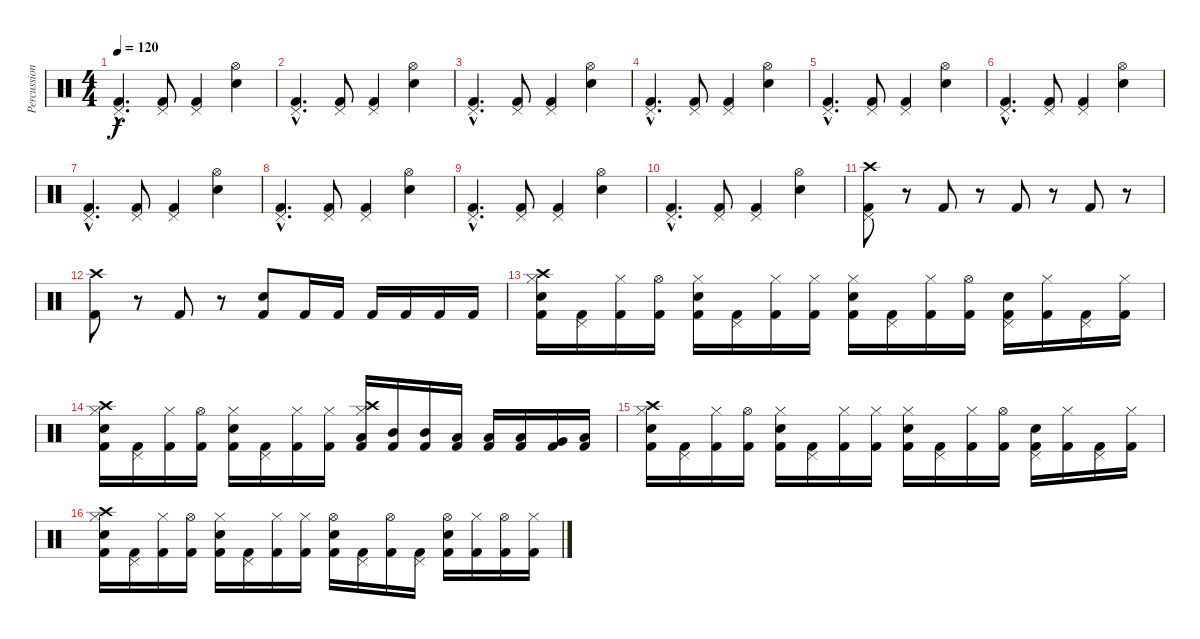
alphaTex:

\track ("Percussion" "Percussion") {instrument percussion}
\staff {score}
\articulation defaults
\ts (4 4)
\tempo 120
\clef neutral
\ks c
("Pedal Hi-Hat (hit)"{hac} "Kick (hit) 2"{hac}).4{d dy f} ("Pedal Hi-Hat (hit)" "Kick (hit) 2").8 ("Pedal Hi-Hat (hit)" "Kick (hit) 2").4 ("Hi-Hat (open)" "Snare (hit) 2").4 |
("Pedal Hi-Hat (hit)"{hac} "Kick (hit) 2"{hac}).4{d} ("Pedal Hi-Hat (hit)" "Kick (hit) 2").8 ("Pedal Hi-Hat (hit)" "Kick (hit) 2").4 ("Hi-Hat (open)" "Snare (hit) 2").4 |
("Pedal Hi-Hat (hit)"{hac} "Kick (hit) 2"{hac}).4{d} ("Pedal Hi-Hat (hit)" "Kick (hit) 2").8 ("Pedal Hi-Hat (hit)" "Kick (hit) 2").4 ("Hi-Hat (open)" "Snare (hit) 2").4 |
("Pedal Hi-Hat (hit)"{hac} "Kick (hit) 2"{hac}).4{d} ("Pedal Hi-Hat (hit)" "Kick (hit) 2").8 ("Pedal Hi-Hat (hit)" "Kick (hit) 2").4 ("Hi-Hat (open)" "Snare (hit) 2").4 |
("Pedal Hi-Hat (hit)"{hac} "Kick (hit) 2"{hac}).4{d} ("Pedal Hi-Hat (hit)" "Kick (hit) 2").8 ("Pedal Hi-Hat (hit)" "Kick (hit) 2").4 ("Hi-Hat (open)" "Snare (hit) 2").4 |
("Pedal Hi-Hat (hit)"{hac} "Kick (hit) 2"{hac}).4{d} ("Pedal Hi-Hat (hit)" "Kick (hit) 2").8 ("Pedal Hi-Hat (hit)" "Kick (hit) 2").4 ("Hi-Hat (open)" "Snare (hit) 2").4 |
("Pedal Hi-Hat (hit)"{hac} "Kick (hit) 2"{hac}).4{d} ("Pedal Hi-Hat (hit)" "Kick (hit) 2").8 ("Pedal Hi-Hat (hit)" "Kick (hit) 2").4 ("Hi-Hat (open)" "Snare (hit) 2").4 |
("Pedal Hi-Hat (hit)"{hac} "Kick (hit) 2"{hac}).4{d} ("Pedal Hi-Hat (hit)" "Kick (hit) 2").8 ("Pedal Hi-Hat (hit)" "Kick (hit) 2").4 ("Hi-Hat (open)" "Snare (hit) 2").4 |
("Pedal Hi-Hat (hit)"{hac} "Kick (hit) 2"{hac}).4{d} ("Pedal Hi-Hat (hit)" "Kick (hit) 2").8 ("Pedal Hi-Hat (hit)" "Kick (hit) 2").4 ("Hi-Hat (open)" "Snare (hit) 2").4 |
("Pedal Hi-Hat (hit)"{hac} "Kick (hit) 2"{hac}).4{d} ("Pedal Hi-Hat (hit)" "Kick (hit) 2").8 ("Pedal Hi-Hat (hit)" "Kick (hit) 2").4 ("Hi-Hat (open)" "Snare (hit) 2").4 |
("Crash high (hit)" "Pedal Hi-Hat (hit)" "Kick (hit) 2").8 r.8 "Kick (hit) 2".8 r.8 "Kick (hit) 2".8 r.8 "Kick (hit) 2".8 r.8 |
("Crash high (hit)" "Kick (hit) 2").8 r.8 "Kick (hit) 2".8 r.8 ("Snare (hit) 2" "Kick (hit) 2").8 "Kick (hit) 2".16 "Kick (hit) 2".16 "Kick (hit) 2".16 "Kick (hit) 2".16 "Kick (hit) 2".16 "Kick (hit) 2".16 |
("Crash high (hit)" "Hi-Hat (closed)" "Snare (hit) 2" "Kick (hit) 2").16 ("Pedal Hi-Hat (hit)" "Kick (hit) 2").16 ("Hi-Hat (closed)" "Kick (hit) 2").16 ("Hi-Hat (open)" "Kick (hit) 2").16 ("Hi-Hat (closed)" "Snare (hit) 2" "Kick (hit) 2").16 ("Pedal Hi-Hat (hit)" "Kick (hit) 2").16 ("Hi-Hat (closed)" "Kick (hit) 2").16 ("Hi-Hat (closed)" "Kick (hit) 2").16 ("Hi-Hat (closed)" "Snare (hit) 2" "Kick (hit) 2").16 ("Pedal Hi-Hat (hit)" "Kick (hit) 2").16 ("Hi-Hat (closed)" "Kick (hit) 2").16 ("Hi-Hat (open)" "Kick (hit) 2").16 ("Pedal Hi-Hat (hit)" "Snare (hit) 2" "Kick (hit) 2").16 ("Hi-Hat (closed)" "Kick (hit) 2").16 ("Pedal Hi-Hat (hit)" "Kick (hit) 2").16 ("Hi-Hat (closed)" "Kick (hit) 2").16 |
("Crash high (hit)" "Hi-Hat (closed)" "Snare (hit) 2" "Kick (hit) 2").16 ("Pedal Hi-Hat (hit)" "Kick (hit) 2").16 ("Hi-Hat (closed)" "Kick (hit) 2").16 ("Hi-Hat (open)" "Kick (hit) 2").16 ("Hi-Hat (closed)" "Snare (hit) 2" "Kick (hit) 2").16 ("Pedal Hi-Hat (hit)" "Kick (hit) 2").16 ("Hi-Hat (closed)" "Kick (hit) 2").16 ("Hi-Hat (closed)" "Kick (hit) 2").16 ("Crash high (hit)" "Hi-Hat (closed)" "Low Floor Tom (hit)" "Kick (hit) 2").16 ("Mid Tom (hit)" "Kick (hit) 2").16 ("Mid Tom (hit)" "Kick (hit) 2").16 ("Low Tom (hit)" "Kick (hit) 2").16 ("Low Tom (hit)" "Kick (hit) 2").16 ("Low Floor Tom (hit)" "Kick (hit) 2").16 ("Very Low Tom (hit)" "Kick (hit) 2").16 ("Low Floor Tom (hit)" "Kick (hit) 2").16 |
("Crash high (hit)" "Hi-Hat (closed)" "Snare (hit) 2" "Kick (hit) 2").16 ("Pedal Hi-Hat (hit)" "Kick (hit) 2").16 ("Hi-Hat (closed)" "Kick (hit) 2").16 ("Hi-Hat (open)" "Kick (hit) 2").16 ("Hi-Hat (closed)" "Snare (hit) 2" "Kick (hit) 2").16 ("Pedal Hi-Hat (hit)" "Kick (hit) 2").16 ("Hi-Hat (closed)" "Kick (hit) 2").16 ("Hi-Hat (closed)" "Kick (hit) 2").16 ("Hi-Hat (closed)" "Snare (hit) 2" "Kick (hit) 2").16 ("Pedal Hi-Hat (hit)" "Kick (hit) 2").16 ("Hi-Hat (closed)" "Kick (hit) 2").16 ("Hi-Hat (open)" "Kick (hit) 2").16 ("Pedal Hi-Hat (hit)" "Snare (hit) 2" "Kick (hit) 2").16 ("Hi-Hat (closed)" "Kick (hit) 2").16 ("Pedal Hi-Hat (hit)" "Kick (hit) 2").16 ("Hi-Hat (closed)" "Kick (hit) 2").16 |
("Crash high (hit)" "Hi-Hat (closed)" "Snare (hit) 2" "Kick (hit) 2").16 ("Pedal Hi-Hat (hit)" "Kick (hit) 2").16 ("Hi-Hat (closed)" "Kick (hit) 2").16 ("Hi-Hat (open)" "Kick (hit) 2").16 ("Hi-Hat (closed)" "Snare (hit) 2" "Kick (hit) 2").16 ("Pedal Hi-Hat (hit)" "Kick (hit) 2").16 ("Hi-Hat (closed)" "Kick (hit) 2").16 ("Hi-Hat (closed)" "Kick (hit) 2").16 ("Hi-Hat (open)" "Snare (hit) 2" "Kick (hit) 2").16 ("Pedal Hi-Hat (hit)" "Kick (hit) 2").16 ("Hi-Hat (open)" "Kick (hit) 2").16 ("Pedal Hi-Hat (hit)" "Kick (hit) 2").16 ("Hi-Hat (open)" "Snare (hit) 2" "Kick (hit) 2").16 ("Hi-Hat (closed)" "Kick (hit) 2").16 ("Hi-Hat (open)" "Kick (hit) 2").16 ("Hi-Hat (closed)" "Kick (hit) 2").16
